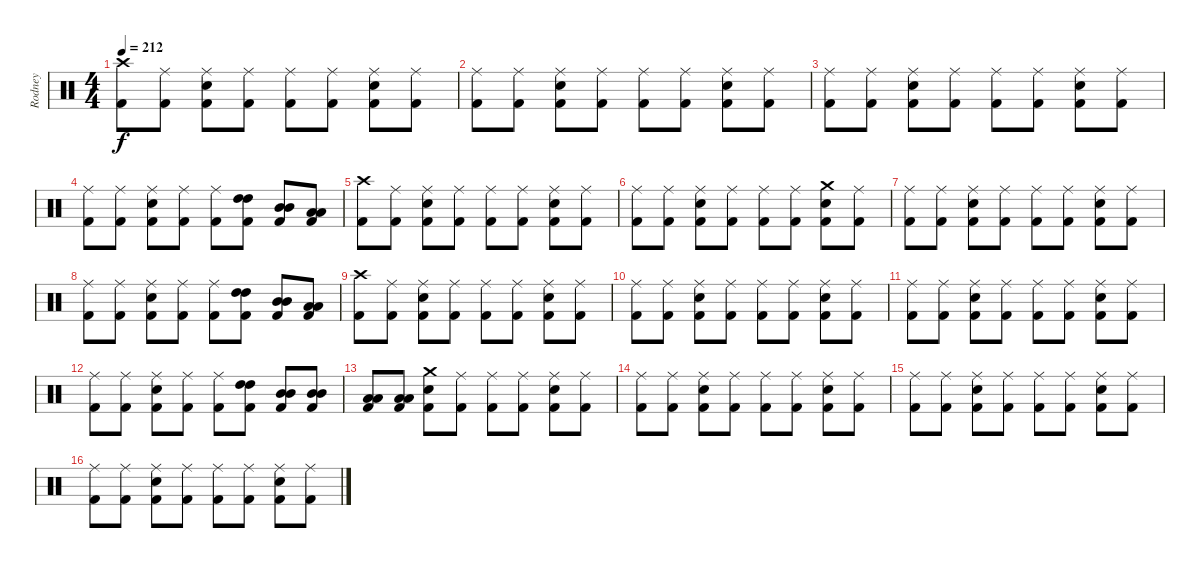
\track ("Rodney" "Rodney") {instrument percussion}
\staff {score}
\articulation defaults
\ts (4 4)
\tempo 212
\clef neutral
\ks c
("Crash high (hit)" "Kick (hit) 2").8{dy f} ("Ride (middle)" "Kick (hit) 2").8 ("Ride (middle)" "Snare (hit) 2" "Kick (hit) 2").8 ("Ride (middle)" "Kick (hit) 2").8 ("Ride (middle)" "Kick (hit) 2").8 ("Ride (middle)" "Kick (hit) 2").8 ("Ride (middle)" "Snare (hit) 2" "Kick (hit) 2").8 ("Ride (middle)" "Kick (hit) 2").8 |
("Ride (middle)" "Kick (hit) 2").8 ("Ride (middle)" "Kick (hit) 2").8 ("Ride (middle)" "Snare (hit) 2" "Kick (hit) 2").8 ("Ride (middle)" "Kick (hit) 2").8 ("Ride (middle)" "Kick (hit) 2").8 ("Ride (middle)" "Kick (hit) 2").8 ("Ride (middle)" "Snare (hit) 2" "Kick (hit) 2").8 ("Ride (middle)" "Kick (hit) 2").8 |
("Ride (middle)" "Kick (hit) 2").8 ("Ride (middle)" "Kick (hit) 2").8 ("Ride (middle)" "Snare (hit) 2" "Kick (hit) 2").8 ("Ride (middle)" "Kick (hit) 2").8 ("Ride (middle)" "Kick (hit) 2").8 ("Ride (middle)" "Kick (hit) 2").8 ("Ride (middle)" "Snare (hit) 2" "Kick (hit) 2").8 ("Ride (middle)" "Kick (hit) 2").8 |
("Ride (middle)" "Kick (hit) 2").8 ("Ride (middle)" "Kick (hit) 2").8 ("Ride (middle)" "Snare (hit) 2" "Kick (hit) 2").8 ("Ride (middle)" "Kick (hit) 2").8 ("Ride (middle)" "Kick (hit) 2").8 ("High Tom (hit)" "High Tom (hit)" "Kick (hit) 2").8 ("Mid Tom (hit)" "Mid Tom (hit)" "Kick (hit) 2").8 ("Low Tom (hit)" "Low Tom (hit)" "Kick (hit) 2").8 |
("Crash high (hit)" "Kick (hit) 2").8 ("Ride (middle)" "Kick (hit) 2").8 ("Ride (middle)" "Snare (hit) 2" "Kick (hit) 2").8 ("Ride (middle)" "Kick (hit) 2").8 ("Ride (middle)" "Kick (hit) 2").8 ("Ride (middle)" "Kick (hit) 2").8 ("Ride (middle)" "Snare (hit) 2" "Kick (hit) 2").8 ("Ride (middle)" "Kick (hit) 2").8 |
("Ride (middle)" "Kick (hit) 2").8 ("Ride (middle)" "Kick (hit) 2").8 ("Ride (middle)" "Snare (hit) 2" "Kick (hit) 2").8 ("Ride (middle)" "Kick (hit) 2").8 ("Ride (middle)" "Kick (hit) 2").8 ("Ride (middle)" "Kick (hit) 2").8 ("Crash medium (hit)" "Snare (hit) 2" "Kick (hit) 2").8 ("Ride (middle)" "Kick (hit) 2").8 |
("Ride (middle)" "Kick (hit) 2").8 ("Ride (middle)" "Kick (hit) 2").8 ("Ride (middle)" "Snare (hit) 2" "Kick (hit) 2").8 ("Ride (middle)" "Kick (hit) 2").8 ("Ride (middle)" "Kick (hit) 2").8 ("Ride (middle)" "Kick (hit) 2").8 ("Ride (middle)" "Snare (hit) 2" "Kick (hit) 2").8 ("Ride (middle)" "Kick (hit) 2").8 |
("Ride (middle)" "Kick (hit) 2").8 ("Ride (middle)" "Kick (hit) 2").8 ("Ride (middle)" "Snare (hit) 2" "Kick (hit) 2").8 ("Ride (middle)" "Kick (hit) 2").8 ("Ride (middle)" "Kick (hit) 2").8 ("High Tom (hit)" "High Tom (hit)" "Kick (hit) 2").8 ("Mid Tom (hit)" "Mid Tom (hit)" "Kick (hit) 2").8 ("Low Tom (hit)" "Low Tom (hit)" "Kick (hit) 2").8 |
("Crash high (hit)" "Kick (hit) 2").8 ("Ride (middle)" "Kick (hit) 2").8 ("Ride (middle)" "Snare (hit) 2" "Kick (hit) 2").8 ("Ride (middle)" "Kick (hit) 2").8 ("Ride (middle)" "Kick (hit) 2").8 ("Ride (middle)" "Kick (hit) 2").8 ("Ride (middle)" "Snare (hit) 2" "Kick (hit) 2").8 ("Ride (middle)" "Kick (hit) 2").8 |
("Ride (middle)" "Kick (hit) 2").8 ("Ride (middle)" "Kick (hit) 2").8 ("Ride (middle)" "Snare (hit) 2" "Kick (hit) 2").8 ("Ride (middle)" "Kick (hit) 2").8 ("Ride (middle)" "Kick (hit) 2").8 ("Ride (middle)" "Kick (hit) 2").8 ("Ride (middle)" "Snare (hit) 2" "Kick (hit) 2").8 ("Ride (middle)" "Kick (hit) 2").8 |
("Ride (middle)" "Kick (hit) 2").8 ("Ride (middle)" "Kick (hit) 2").8 ("Ride (middle)" "Snare (hit) 2" "Kick (hit) 2").8 ("Ride (middle)" "Kick (hit) 2").8 ("Ride (middle)" "Kick (hit) 2").8 ("Ride (middle)" "Kick (hit) 2").8 ("Ride (middle)" "Snare (hit) 2" "Kick (hit) 2").8 ("Ride (middle)" "Kick (hit) 2").8 |
("Ride (middle)" "Kick (hit) 2").8 ("Ride (middle)" "Kick (hit) 2").8 ("Ride (middle)" "Snare (hit) 2" "Kick (hit) 2").8 ("Ride (middle)" "Kick (hit) 2").8 ("Ride (middle)" "Kick (hit) 2").8 ("High Tom (hit)" "High Tom (hit)" "Kick (hit) 2").8 ("Mid Tom (hit)" "Mid Tom (hit)" "Kick (hit) 2").8 ("Mid Tom (hit)" "Mid Tom (hit)" "Kick (hit) 2").8 |
("Low Tom (hit)" "Low Tom (hit)" "Kick (hit) 2").8 ("Low Tom (hit)" "Low Tom (hit)" "Kick (hit) 2").8 ("Crash medium (hit)" "Snare (hit) 2" "Kick (hit) 2").8 ("Ride (middle)" "Kick (hit) 2").8 ("Ride (middle)" "Kick (hit) 2").8 ("Ride (middle)" "Kick (hit) 2").8 ("Ride (middle)" "Snare (hit) 2" "Kick (hit) 2").8 ("Ride (middle)" "Kick (hit) 2").8 |
("Ride (middle)" "Kick (hit) 2").8 ("Ride (middle)" "Kick (hit) 2").8 ("Ride (middle)" "Snare (hit) 2" "Kick (hit) 2").8 ("Ride (middle)" "Kick (hit) 2").8 ("Ride (middle)" "Kick (hit) 2").8 ("Ride (middle)" "Kick (hit) 2").8 ("Ride (middle)" "Snare (hit) 2" "Kick (hit) 2").8 ("Ride (middle)" "Kick (hit) 2").8 |
("Ride (middle)" "Kick (hit) 2").8 ("Ride (middle)" "Kick (hit) 2").8 ("Ride (middle)" "Snare (hit) 2" "Kick (hit) 2").8 ("Ride (middle)" "Kick (hit) 2").8 ("Ride (middle)" "Kick (hit) 2").8 ("Ride (middle)" "Kick (hit) 2").8 ("Ride (middle)" "Snare (hit) 2" "Kick (hit) 2").8 ("Ride (middle)" "Kick (hit) 2").8 |
("Ride (middle)" "Kick (hit) 2").8 ("Ride (middle)" "Kick (hit) 2").8 ("Ride (middle)" "Snare (hit) 2" "Kick (hit) 2").8 ("Ride (middle)" "Kick (hit) 2").8 ("Ride (middle)" "Kick (hit) 2").8 ("Ride (middle)" "Kick (hit) 2").8 ("Ride (middle)" "Snare (hit) 2" "Kick (hit) 2").8 ("Ride (middle)" "Kick (hit) 2").8
